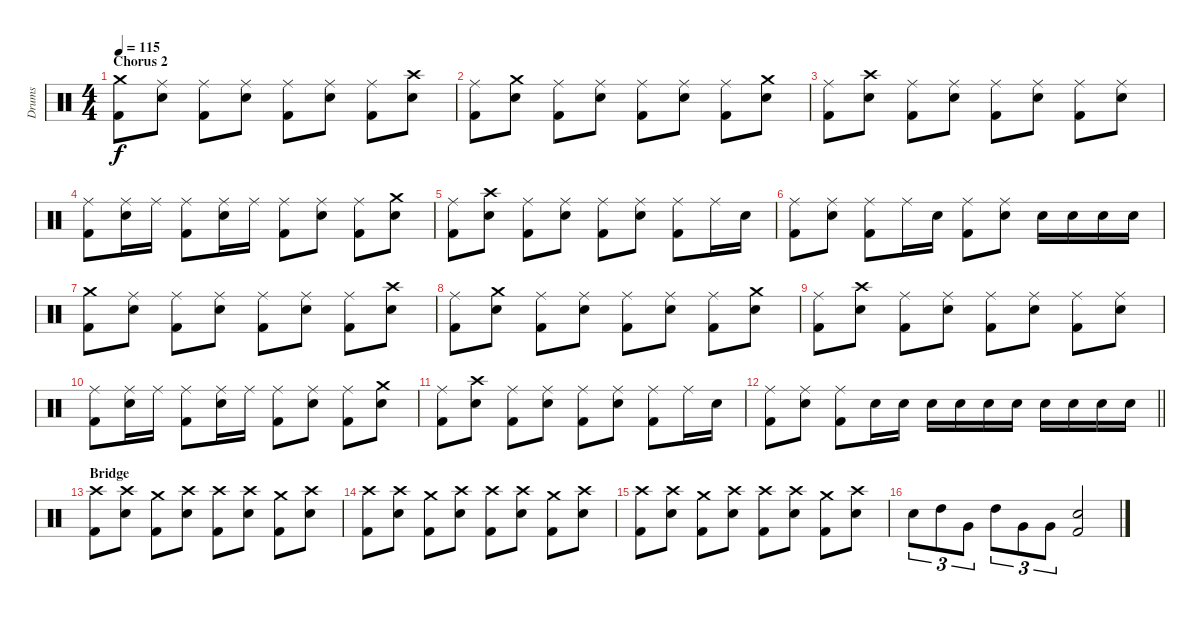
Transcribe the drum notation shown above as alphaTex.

\track ("Drums" "Drums") {instrument percussion}
\staff {score}
\articulation defaults
\ts (4 4)
\section ("" "Chorus 2")
\tempo 115
\clef neutral
\ks c
("Crash medium (hit)" "Kick (hit) 2").8{dy f} ("Ride (middle)" "Snare (hit) 2").8 ("Ride (middle)" "Kick (hit) 2").8 ("Ride (middle)" "Snare (hit) 2").8 ("Ride (middle)" "Kick (hit) 2").8 ("Ride (middle)" "Snare (hit) 2").8 ("Ride (middle)" "Kick (hit) 2").8 ("Crash high (hit)" "Snare (hit) 2").8 |
("Ride (middle)" "Kick (hit) 2").8 ("Crash medium (hit)" "Snare (hit) 2").8 ("Ride (middle)" "Kick (hit) 2").8 ("Ride (middle)" "Snare (hit) 2").8 ("Ride (middle)" "Kick (hit) 2").8 ("Ride (middle)" "Snare (hit) 2").8 ("Ride (middle)" "Kick (hit) 2").8 ("Crash medium (hit)" "Snare (hit) 2").8 |
("Ride (middle)" "Kick (hit) 2").8 ("Crash high (hit)" "Snare (hit) 2").8 ("Ride (middle)" "Kick (hit) 2").8 ("Ride (middle)" "Snare (hit) 2").8 ("Ride (middle)" "Kick (hit) 2").8 ("Ride (middle)" "Snare (hit) 2").8 ("Ride (middle)" "Kick (hit) 2").8 ("Ride (middle)" "Snare (hit) 2").8 |
("Ride (middle)" "Kick (hit) 2").8 ("Ride (middle)" "Snare (hit) 2").16 "Ride (middle)".16 ("Ride (middle)" "Kick (hit) 2").8 ("Ride (middle)" "Snare (hit) 2").16 "Ride (middle)".16 ("Ride (middle)" "Kick (hit) 2").8 ("Ride (middle)" "Snare (hit) 2").8 ("Ride (middle)" "Kick (hit) 2").8 ("Crash medium (hit)" "Snare (hit) 2").8 |
("Ride (middle)" "Kick (hit) 2").8 ("Crash high (hit)" "Snare (hit) 2").8 ("Ride (middle)" "Kick (hit) 2").8 ("Ride (middle)" "Snare (hit) 2").8 ("Ride (middle)" "Kick (hit) 2").8 ("Ride (middle)" "Snare (hit) 2").8 ("Ride (middle)" "Kick (hit) 2").8 "Ride (middle)".16 "Snare (hit) 2".16 |
("Ride (middle)" "Kick (hit) 2").8 ("Ride (middle)" "Snare (hit) 2").8 ("Ride (middle)" "Kick (hit) 2").8 "Ride (middle)".16 "Snare (hit) 2".16 ("Ride (middle)" "Kick (hit) 2").8 ("Ride (middle)" "Snare (hit) 2").8 "Snare (hit) 2".16 "Snare (hit) 2".16 "Snare (hit) 2".16 "Snare (hit) 2".16 |
("Crash medium (hit)" "Kick (hit) 2").8 ("Ride (middle)" "Snare (hit) 2").8 ("Ride (middle)" "Kick (hit) 2").8 ("Ride (middle)" "Snare (hit) 2").8 ("Ride (middle)" "Kick (hit) 2").8 ("Ride (middle)" "Snare (hit) 2").8 ("Ride (middle)" "Kick (hit) 2").8 ("Crash high (hit)" "Snare (hit) 2").8 |
("Ride (middle)" "Kick (hit) 2").8 ("Crash medium (hit)" "Snare (hit) 2").8 ("Ride (middle)" "Kick (hit) 2").8 ("Ride (middle)" "Snare (hit) 2").8 ("Ride (middle)" "Kick (hit) 2").8 ("Ride (middle)" "Snare (hit) 2").8 ("Ride (middle)" "Kick (hit) 2").8 ("Crash medium (hit)" "Snare (hit) 2").8 |
("Ride (middle)" "Kick (hit) 2").8 ("Crash high (hit)" "Snare (hit) 2").8 ("Ride (middle)" "Kick (hit) 2").8 ("Ride (middle)" "Snare (hit) 2").8 ("Ride (middle)" "Kick (hit) 2").8 ("Ride (middle)" "Snare (hit) 2").8 ("Ride (middle)" "Kick (hit) 2").8 ("Ride (middle)" "Snare (hit) 2").8 |
("Ride (middle)" "Kick (hit) 2").8 ("Ride (middle)" "Snare (hit) 2").16 "Ride (middle)".16 ("Ride (middle)" "Kick (hit) 2").8 ("Ride (middle)" "Snare (hit) 2").16 "Ride (middle)".16 ("Ride (middle)" "Kick (hit) 2").8 ("Ride (middle)" "Snare (hit) 2").8 ("Ride (middle)" "Kick (hit) 2").8 ("Crash medium (hit)" "Snare (hit) 2").8 |
("Ride (middle)" "Kick (hit) 2").8 ("Crash high (hit)" "Snare (hit) 2").8 ("Ride (middle)" "Kick (hit) 2").8 ("Ride (middle)" "Snare (hit) 2").8 ("Ride (middle)" "Kick (hit) 2").8 ("Ride (middle)" "Snare (hit) 2").8 ("Ride (middle)" "Kick (hit) 2").8 "Ride (middle)".16 "Snare (hit) 2".16 |
\barLineRight lightlight
("Ride (middle)" "Kick (hit) 2").8 ("Ride (middle)" "Snare (hit) 2").8 ("Ride (middle)" "Kick (hit) 2").8 "Snare (hit) 2".16 "Snare (hit) 2".16 "Snare (hit) 2".16 "Snare (hit) 2".16 "Snare (hit) 2".16 "Snare (hit) 2".16 "Snare (hit) 2".16 "Snare (hit) 2".16 "Snare (hit) 2".16 "Snare (hit) 2".16 |
\section ("" "Bridge")
("Crash high (hit)" "Kick (hit) 2").8 ("Crash high (hit)" "Snare (hit) 2").8 ("Crash medium (hit)" "Kick (hit) 2").8 ("Crash high (hit)" "Snare (hit) 2").8 ("Crash high (hit)" "Kick (hit) 2").8 ("Crash high (hit)" "Snare (hit) 2").8 ("Crash medium (hit)" "Kick (hit) 2").8 ("Crash high (hit)" "Snare (hit) 2").8 |
("Crash high (hit)" "Kick (hit) 2").8 ("Crash high (hit)" "Snare (hit) 2").8 ("Crash medium (hit)" "Kick (hit) 2").8 ("Crash high (hit)" "Snare (hit) 2").8 ("Crash high (hit)" "Kick (hit) 2").8 ("Crash high (hit)" "Snare (hit) 2").8 ("Crash medium (hit)" "Kick (hit) 2").8 ("Crash high (hit)" "Snare (hit) 2").8 |
("Crash high (hit)" "Kick (hit) 2").8 ("Crash high (hit)" "Snare (hit) 2").8 ("Crash medium (hit)" "Kick (hit) 2").8 ("Crash high (hit)" "Snare (hit) 2").8 ("Crash high (hit)" "Kick (hit) 2").8 ("Crash high (hit)" "Snare (hit) 2").8 ("Crash medium (hit)" "Kick (hit) 2").8 ("Crash high (hit)" "Snare (hit) 2").8 |
"Snare (hit) 2".8{tu (3 2)} "High Tom (hit)".8{tu (3 2)} "Very Low Tom (hit)".8{tu (3 2)} "High Tom (hit)".8{tu (3 2)} "Very Low Tom (hit)".8{tu (3 2)} "Very Low Tom (hit)".8{tu (3 2)} ("Snare (hit) 2" "Kick (hit) 2").2
